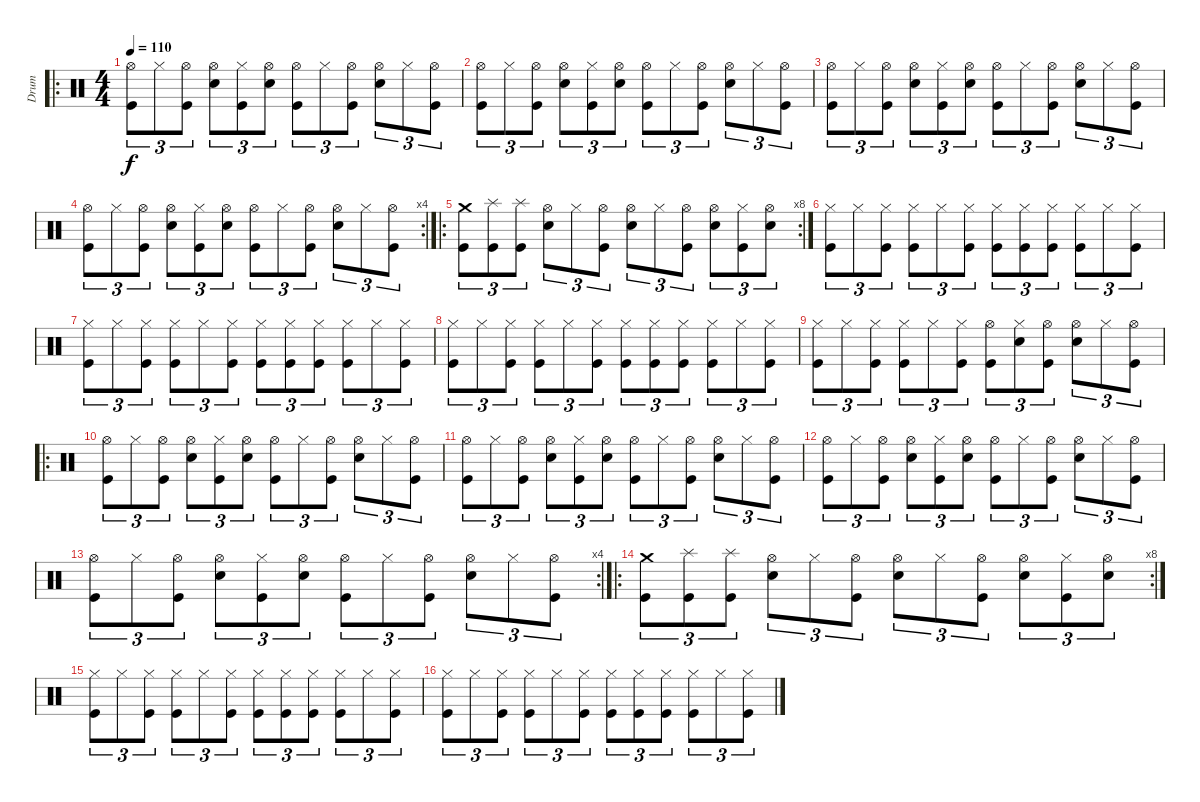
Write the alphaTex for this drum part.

\track ("Drum" "Drum") {instrument percussion}
\staff {score}
\articulation defaults
\ro
\ts (4 4)
\tempo 110
\clef neutral
\ks c
("Hi-Hat (open)" "Kick (hit)").8{tu (3 2) dy f} "Hi-Hat (closed)".8{tu (3 2)} ("Hi-Hat (open)" "Kick (hit)").8{tu (3 2)} ("Hi-Hat (open)" "Snare (hit) 2").8{tu (3 2)} ("Hi-Hat (closed)" "Kick (hit)").8{tu (3 2)} ("Hi-Hat (open)" "Snare (hit) 2").8{tu (3 2)} ("Hi-Hat (open)" "Kick (hit)").8{tu (3 2)} "Hi-Hat (closed)".8{tu (3 2)} ("Hi-Hat (open)" "Kick (hit)").8{tu (3 2)} ("Hi-Hat (open)" "Snare (hit) 2").8{tu (3 2)} "Hi-Hat (closed)".8{tu (3 2)} ("Hi-Hat (open)" "Kick (hit)").8{tu (3 2)} |
("Hi-Hat (open)" "Kick (hit)").8{tu (3 2)} "Hi-Hat (closed)".8{tu (3 2)} ("Hi-Hat (open)" "Kick (hit)").8{tu (3 2)} ("Hi-Hat (open)" "Snare (hit) 2").8{tu (3 2)} ("Hi-Hat (closed)" "Kick (hit)").8{tu (3 2)} ("Hi-Hat (open)" "Snare (hit) 2").8{tu (3 2)} ("Hi-Hat (open)" "Kick (hit)").8{tu (3 2)} "Hi-Hat (closed)".8{tu (3 2)} ("Hi-Hat (open)" "Kick (hit)").8{tu (3 2)} ("Hi-Hat (open)" "Snare (hit) 2").8{tu (3 2)} "Hi-Hat (closed)".8{tu (3 2)} ("Hi-Hat (open)" "Kick (hit)").8{tu (3 2)} |
("Hi-Hat (open)" "Kick (hit)").8{tu (3 2)} "Hi-Hat (closed)".8{tu (3 2)} ("Hi-Hat (open)" "Kick (hit)").8{tu (3 2)} ("Hi-Hat (open)" "Snare (hit) 2").8{tu (3 2)} ("Hi-Hat (closed)" "Kick (hit)").8{tu (3 2)} ("Hi-Hat (open)" "Snare (hit) 2").8{tu (3 2)} ("Hi-Hat (open)" "Kick (hit)").8{tu (3 2)} "Hi-Hat (closed)".8{tu (3 2)} ("Hi-Hat (open)" "Kick (hit)").8{tu (3 2)} ("Hi-Hat (open)" "Snare (hit) 2").8{tu (3 2)} "Hi-Hat (closed)".8{tu (3 2)} ("Hi-Hat (open)" "Kick (hit)").8{tu (3 2)} |
\rc 4
("Hi-Hat (open)" "Kick (hit)").8{tu (3 2)} "Hi-Hat (closed)".8{tu (3 2)} ("Hi-Hat (open)" "Kick (hit)").8{tu (3 2)} ("Hi-Hat (open)" "Snare (hit) 2").8{tu (3 2)} ("Hi-Hat (closed)" "Kick (hit)").8{tu (3 2)} ("Hi-Hat (open)" "Snare (hit) 2").8{tu (3 2)} ("Hi-Hat (open)" "Kick (hit)").8{tu (3 2)} "Hi-Hat (closed)".8{tu (3 2)} ("Hi-Hat (open)" "Kick (hit)").8{tu (3 2)} ("Hi-Hat (open)" "Snare (hit) 2").8{tu (3 2)} "Hi-Hat (closed)".8{tu (3 2)} ("Hi-Hat (open)" "Kick (hit)").8{tu (3 2)} |
\ro
\rc 8
("Crash medium (hit)" "Kick (hit)").8{tu (3 2)} ("Splash (hit)" "Kick (hit)").8{tu (3 2)} ("Splash (hit)" "Kick (hit)").8{tu (3 2)} ("Hi-Hat (open)" "Snare (hit) 2").8{tu (3 2)} "Hi-Hat (closed)".8{tu (3 2)} ("Hi-Hat (open)" "Kick (hit)").8{tu (3 2)} ("Hi-Hat (open)" "Snare (hit) 2").8{tu (3 2)} "Hi-Hat (closed)".8{tu (3 2)} ("Hi-Hat (open)" "Kick (hit)").8{tu (3 2)} ("Hi-Hat (open)" "Snare (hit) 2").8{tu (3 2)} ("Hi-Hat (closed)" "Kick (hit)").8{tu (3 2)} ("Hi-Hat (open)" "Snare (hit) 2").8{tu (3 2)} |
("Hi-Hat (closed)" "Kick (hit)").8{tu (3 2)} "Hi-Hat (closed)".8{tu (3 2)} ("Hi-Hat (closed)" "Kick (hit)").8{tu (3 2)} ("Hi-Hat (closed)" "Kick (hit)").8{tu (3 2)} "Hi-Hat (closed)".8{tu (3 2)} ("Hi-Hat (closed)" "Kick (hit)").8{tu (3 2)} ("Hi-Hat (closed)" "Kick (hit)").8{tu (3 2)} ("Hi-Hat (closed)" "Kick (hit)").8{tu (3 2)} ("Hi-Hat (closed)" "Kick (hit)").8{tu (3 2)} ("Hi-Hat (closed)" "Kick (hit)").8{tu (3 2)} "Hi-Hat (closed)".8{tu (3 2)} ("Hi-Hat (closed)" "Kick (hit)").8{tu (3 2)} |
("Hi-Hat (closed)" "Kick (hit)").8{tu (3 2)} "Hi-Hat (closed)".8{tu (3 2)} ("Hi-Hat (closed)" "Kick (hit)").8{tu (3 2)} ("Hi-Hat (closed)" "Kick (hit)").8{tu (3 2)} "Hi-Hat (closed)".8{tu (3 2)} ("Hi-Hat (closed)" "Kick (hit)").8{tu (3 2)} ("Hi-Hat (closed)" "Kick (hit)").8{tu (3 2)} ("Hi-Hat (closed)" "Kick (hit)").8{tu (3 2)} ("Hi-Hat (closed)" "Kick (hit)").8{tu (3 2)} ("Hi-Hat (closed)" "Kick (hit)").8{tu (3 2)} "Hi-Hat (closed)".8{tu (3 2)} ("Hi-Hat (closed)" "Kick (hit)").8{tu (3 2)} |
("Hi-Hat (closed)" "Kick (hit)").8{tu (3 2)} "Hi-Hat (closed)".8{tu (3 2)} ("Hi-Hat (closed)" "Kick (hit)").8{tu (3 2)} ("Hi-Hat (closed)" "Kick (hit)").8{tu (3 2)} "Hi-Hat (closed)".8{tu (3 2)} ("Hi-Hat (closed)" "Kick (hit)").8{tu (3 2)} ("Hi-Hat (closed)" "Kick (hit)").8{tu (3 2)} ("Hi-Hat (closed)" "Kick (hit)").8{tu (3 2)} ("Hi-Hat (closed)" "Kick (hit)").8{tu (3 2)} ("Hi-Hat (closed)" "Kick (hit)").8{tu (3 2)} "Hi-Hat (closed)".8{tu (3 2)} ("Hi-Hat (closed)" "Kick (hit)").8{tu (3 2)} |
("Hi-Hat (closed)" "Kick (hit)").8{tu (3 2)} "Hi-Hat (closed)".8{tu (3 2)} ("Hi-Hat (closed)" "Kick (hit)").8{tu (3 2)} ("Hi-Hat (closed)" "Kick (hit)").8{tu (3 2)} "Hi-Hat (closed)".8{tu (3 2)} ("Hi-Hat (closed)" "Kick (hit)").8{tu (3 2)} ("Hi-Hat (open)" "Kick (hit)").8{tu (3 2)} ("Hi-Hat (closed)" "Snare (hit) 2").8{tu (3 2)} ("Hi-Hat (open)" "Kick (hit)").8{tu (3 2)} ("Hi-Hat (open)" "Snare (hit) 2").8{tu (3 2)} "Hi-Hat (closed)".8{tu (3 2)} ("Hi-Hat (open)" "Kick (hit)").8{tu (3 2)} |
\ro
("Hi-Hat (open)" "Kick (hit)").8{tu (3 2)} "Hi-Hat (closed)".8{tu (3 2)} ("Hi-Hat (open)" "Kick (hit)").8{tu (3 2)} ("Hi-Hat (open)" "Snare (hit) 2").8{tu (3 2)} ("Hi-Hat (closed)" "Kick (hit)").8{tu (3 2)} ("Hi-Hat (open)" "Snare (hit) 2").8{tu (3 2)} ("Hi-Hat (open)" "Kick (hit)").8{tu (3 2)} "Hi-Hat (closed)".8{tu (3 2)} ("Hi-Hat (open)" "Kick (hit)").8{tu (3 2)} ("Hi-Hat (open)" "Snare (hit) 2").8{tu (3 2)} "Hi-Hat (closed)".8{tu (3 2)} ("Hi-Hat (open)" "Kick (hit)").8{tu (3 2)} |
("Hi-Hat (open)" "Kick (hit)").8{tu (3 2)} "Hi-Hat (closed)".8{tu (3 2)} ("Hi-Hat (open)" "Kick (hit)").8{tu (3 2)} ("Hi-Hat (open)" "Snare (hit) 2").8{tu (3 2)} ("Hi-Hat (closed)" "Kick (hit)").8{tu (3 2)} ("Hi-Hat (open)" "Snare (hit) 2").8{tu (3 2)} ("Hi-Hat (open)" "Kick (hit)").8{tu (3 2)} "Hi-Hat (closed)".8{tu (3 2)} ("Hi-Hat (open)" "Kick (hit)").8{tu (3 2)} ("Hi-Hat (open)" "Snare (hit) 2").8{tu (3 2)} "Hi-Hat (closed)".8{tu (3 2)} ("Hi-Hat (open)" "Kick (hit)").8{tu (3 2)} |
("Hi-Hat (open)" "Kick (hit)").8{tu (3 2)} "Hi-Hat (closed)".8{tu (3 2)} ("Hi-Hat (open)" "Kick (hit)").8{tu (3 2)} ("Hi-Hat (open)" "Snare (hit) 2").8{tu (3 2)} ("Hi-Hat (closed)" "Kick (hit)").8{tu (3 2)} ("Hi-Hat (open)" "Snare (hit) 2").8{tu (3 2)} ("Hi-Hat (open)" "Kick (hit)").8{tu (3 2)} "Hi-Hat (closed)".8{tu (3 2)} ("Hi-Hat (open)" "Kick (hit)").8{tu (3 2)} ("Hi-Hat (open)" "Snare (hit) 2").8{tu (3 2)} "Hi-Hat (closed)".8{tu (3 2)} ("Hi-Hat (open)" "Kick (hit)").8{tu (3 2)} |
\rc 4
("Hi-Hat (open)" "Kick (hit)").8{tu (3 2)} "Hi-Hat (closed)".8{tu (3 2)} ("Hi-Hat (open)" "Kick (hit)").8{tu (3 2)} ("Hi-Hat (open)" "Snare (hit) 2").8{tu (3 2)} ("Hi-Hat (closed)" "Kick (hit)").8{tu (3 2)} ("Hi-Hat (open)" "Snare (hit) 2").8{tu (3 2)} ("Hi-Hat (open)" "Kick (hit)").8{tu (3 2)} "Hi-Hat (closed)".8{tu (3 2)} ("Hi-Hat (open)" "Kick (hit)").8{tu (3 2)} ("Hi-Hat (open)" "Snare (hit) 2").8{tu (3 2)} "Hi-Hat (closed)".8{tu (3 2)} ("Hi-Hat (open)" "Kick (hit)").8{tu (3 2)} |
\ro
\rc 8
("Crash medium (hit)" "Kick (hit)").8{tu (3 2)} ("Splash (hit)" "Kick (hit)").8{tu (3 2)} ("Splash (hit)" "Kick (hit)").8{tu (3 2)} ("Hi-Hat (open)" "Snare (hit) 2").8{tu (3 2)} "Hi-Hat (closed)".8{tu (3 2)} ("Hi-Hat (open)" "Kick (hit)").8{tu (3 2)} ("Hi-Hat (open)" "Snare (hit) 2").8{tu (3 2)} "Hi-Hat (closed)".8{tu (3 2)} ("Hi-Hat (open)" "Kick (hit)").8{tu (3 2)} ("Hi-Hat (open)" "Snare (hit) 2").8{tu (3 2)} ("Hi-Hat (closed)" "Kick (hit)").8{tu (3 2)} ("Hi-Hat (open)" "Snare (hit) 2").8{tu (3 2)} |
("Hi-Hat (closed)" "Kick (hit)").8{tu (3 2)} "Hi-Hat (closed)".8{tu (3 2)} ("Hi-Hat (closed)" "Kick (hit)").8{tu (3 2)} ("Hi-Hat (closed)" "Kick (hit)").8{tu (3 2)} "Hi-Hat (closed)".8{tu (3 2)} ("Hi-Hat (closed)" "Kick (hit)").8{tu (3 2)} ("Hi-Hat (closed)" "Kick (hit)").8{tu (3 2)} ("Hi-Hat (closed)" "Kick (hit)").8{tu (3 2)} ("Hi-Hat (closed)" "Kick (hit)").8{tu (3 2)} ("Hi-Hat (closed)" "Kick (hit)").8{tu (3 2)} "Hi-Hat (closed)".8{tu (3 2)} ("Hi-Hat (closed)" "Kick (hit)").8{tu (3 2)} |
("Hi-Hat (closed)" "Kick (hit)").8{tu (3 2)} "Hi-Hat (closed)".8{tu (3 2)} ("Hi-Hat (closed)" "Kick (hit)").8{tu (3 2)} ("Hi-Hat (closed)" "Kick (hit)").8{tu (3 2)} "Hi-Hat (closed)".8{tu (3 2)} ("Hi-Hat (closed)" "Kick (hit)").8{tu (3 2)} ("Hi-Hat (closed)" "Kick (hit)").8{tu (3 2)} ("Hi-Hat (closed)" "Kick (hit)").8{tu (3 2)} ("Hi-Hat (closed)" "Kick (hit)").8{tu (3 2)} ("Hi-Hat (closed)" "Kick (hit)").8{tu (3 2)} "Hi-Hat (closed)".8{tu (3 2)} ("Hi-Hat (closed)" "Kick (hit)").8{tu (3 2)}
